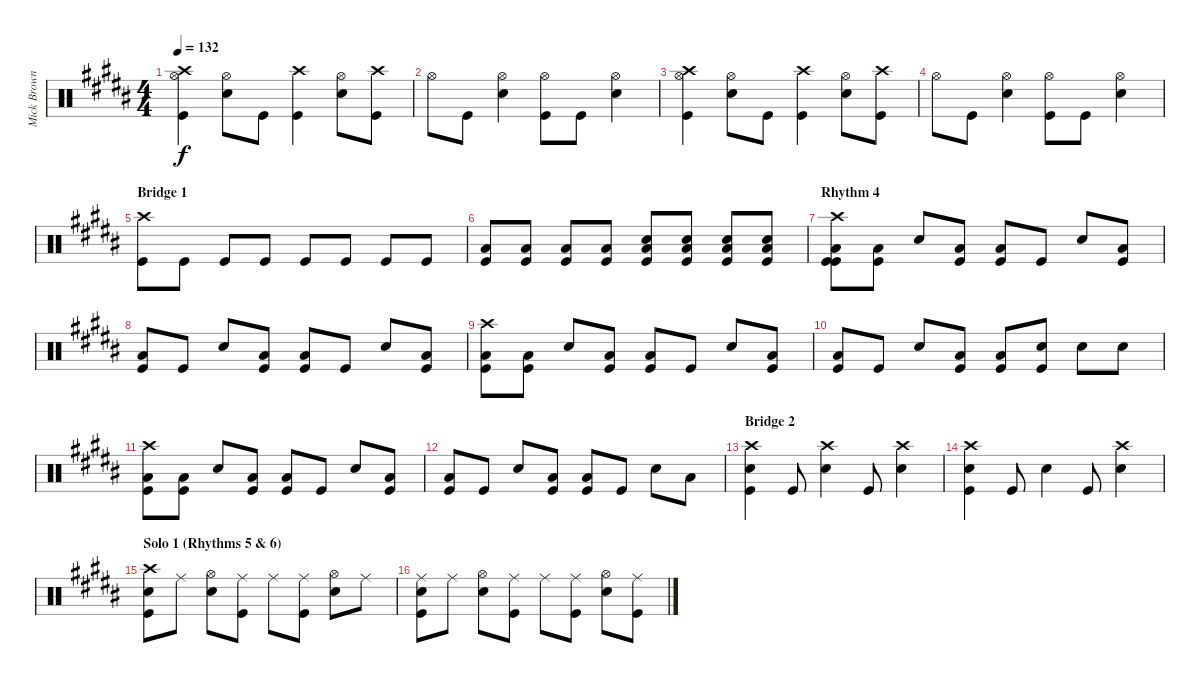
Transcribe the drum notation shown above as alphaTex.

\track ("Mick Brown" "Mick Brown") {instrument percussion}
\staff {score}
\articulation defaults
\ts (4 4)
\tempo 132
\clef neutral
\ks g#minor
("Crash high (hit)" "Hi-Hat (open)" "Kick (hit)").4{dy f} ("Snare (hit) 2" "Hi-Hat (open)").8 "Kick (hit)".8 ("Kick (hit)" "Crash high (hit)").4 ("Hi-Hat (open)" "Snare (hit) 2").8 ("Kick (hit)" "Crash high (hit)").8 |
"Hi-Hat (open)".8 "Kick (hit)".8 ("Snare (hit) 2" "Hi-Hat (open)").4 ("Kick (hit)" "Hi-Hat (open)").8 "Kick (hit)".8 ("Hi-Hat (open)" "Snare (hit) 2").4 |
("Crash high (hit)" "Hi-Hat (open)" "Kick (hit)").4 ("Snare (hit) 2" "Hi-Hat (open)").8 "Kick (hit)".8 ("Crash high (hit)" "Kick (hit)").4 ("Snare (hit) 2" "Hi-Hat (open)").8 ("Kick (hit)" "Crash high (hit)").8 |
"Hi-Hat (open)".8 "Kick (hit)".8 ("Snare (hit) 2" "Hi-Hat (open)").4 ("Kick (hit)" "Hi-Hat (open)").8 "Kick (hit)".8 ("Snare (hit) 2" "Hi-Hat (open)").4 |
\section ("" "Bridge 1")
("Kick (hit)" "Crash high (hit)").8 "Kick (hit)".8 "Kick (hit)".8 "Kick (hit)".8 "Kick (hit)".8 "Kick (hit)".8 "Kick (hit)".8 "Kick (hit)".8 |
("Low Floor Tom (hit)" "Kick (hit)").8 ("Low Floor Tom (hit)" "Kick (hit)").8 ("Kick (hit)" "Low Floor Tom (hit)").8 ("Kick (hit)" "Low Floor Tom (hit)").8 ("Kick (hit)" "Low Floor Tom (hit)" "Snare (hit) 2").8 ("Low Floor Tom (hit)" "Kick (hit)" "Snare (hit) 2").8 ("Low Floor Tom (hit)" "Snare (hit) 2" "Kick (hit)").8 ("Snare (hit) 2" "Low Floor Tom (hit)" "Kick (hit)").8 |
\section ("" "Rhythm 4")
("Kick (hit)" "Low Floor Tom (hit)" "Crash high (hit)" "Kick (hit)").8 ("Low Floor Tom (hit)" "Kick (hit)").8 "Snare (hit) 2".8 ("Kick (hit)" "Low Floor Tom (hit)").8 ("Low Floor Tom (hit)" "Kick (hit)").8 "Kick (hit)".8 "Snare (hit) 2".8 ("Low Floor Tom (hit)" "Kick (hit)").8 |
("Kick (hit)" "Low Floor Tom (hit)").8 "Kick (hit)".8 "Snare (hit) 2".8 ("Kick (hit)" "Low Floor Tom (hit)").8 ("Kick (hit)" "Low Floor Tom (hit)").8 "Kick (hit)".8 "Snare (hit) 2".8 ("Low Floor Tom (hit)" "Kick (hit)").8 |
("Low Floor Tom (hit)" "Kick (hit)" "Crash high (hit)").8 ("Low Floor Tom (hit)" "Kick (hit)").8 "Snare (hit) 2".8 ("Low Floor Tom (hit)" "Kick (hit)").8 ("Low Floor Tom (hit)" "Kick (hit)").8 "Kick (hit)".8 "Snare (hit) 2".8 ("Low Floor Tom (hit)" "Kick (hit)").8 |
("Low Floor Tom (hit)" "Kick (hit)").8 "Kick (hit)".8 "Snare (hit) 2".8 ("Kick (hit)" "Low Floor Tom (hit)").8 ("Kick (hit)" "Low Floor Tom (hit)").8 ("Kick (hit)" "Snare (hit) 2").8 "Snare (hit) 2".8 "Snare (hit) 2".8 |
("Crash high (hit)" "Kick (hit)" "Low Floor Tom (hit)").8 ("Kick (hit)" "Low Floor Tom (hit)").8 "Snare (hit) 2".8 ("Kick (hit)" "Low Floor Tom (hit)").8 ("Kick (hit)" "Low Floor Tom (hit)").8 "Kick (hit)".8 "Snare (hit) 2".8 ("Kick (hit)" "Low Floor Tom (hit)").8 |
("Kick (hit)" "Low Floor Tom (hit)").8 "Kick (hit)".8 "Snare (hit) 2".8 ("Low Floor Tom (hit)" "Kick (hit)").8 ("Low Floor Tom (hit)" "Kick (hit)").8 "Kick (hit)".8 "Snare (hit) 2".8 "Low Floor Tom (hit)".8 |
\section ("" "Bridge 2")
("Crash high (hit)" "Snare (hit) 2" "Kick (hit)").4 "Kick (hit)".8 ("Snare (hit) 2" "Crash high (hit)").4 "Kick (hit)".8 ("Crash high (hit)" "Snare (hit) 2").4 |
("Snare (hit) 2" "Crash high (hit)" "Kick (hit)").4 "Kick (hit)".8 "Snare (hit) 2".4 "Kick (hit)".8 ("Crash high (hit)" "Snare (hit) 2").4 |
\section ("" "Solo 1 (Rhythms 5 & 6)")
("Snare (hit) 2" "Crash high (hit)" "Kick (hit)").8 "Ride (middle)".8 ("Snare (hit) 2" "Hi-Hat (open)").8 ("Ride (middle)" "Kick (hit)").8 "Ride (middle)".8 ("Ride (middle)" "Kick (hit)").8 ("Hi-Hat (open)" "Snare (hit) 2").8 "Ride (middle)".8 |
("Snare (hit) 2" "Ride (middle)" "Kick (hit)").8 "Ride (middle)".8 ("Snare (hit) 2" "Hi-Hat (open)").8 ("Kick (hit)" "Ride (middle)").8 "Ride (middle)".8 ("Ride (middle)" "Kick (hit)").8 ("Hi-Hat (open)" "Snare (hit) 2").8 ("Ride (middle)" "Kick (hit)").8
